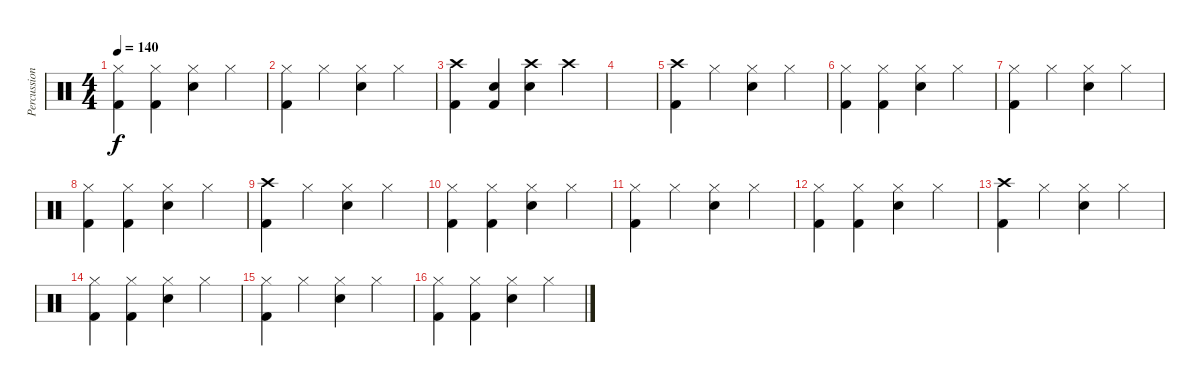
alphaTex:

\track ("Percussion" "Percussion") {instrument percussion}
\staff {score}
\articulation defaults
\ts (4 4)
\tempo 140
\clef neutral
\ks c
("Hi-Hat (closed)" "Kick (hit) 2").4{dy f} ("Hi-Hat (closed)" "Kick (hit) 2").4 ("Hi-Hat (closed)" "Electric Snare (hit)").4 "Hi-Hat (closed)".4 |
("Hi-Hat (closed)" "Kick (hit) 2").4 "Hi-Hat (closed)".4 ("Hi-Hat (closed)" "Electric Snare (hit)").4 "Hi-Hat (closed)".4 |
("Crash high (hit)" "Kick (hit) 2").4 ("Electric Snare (hit)" "Kick (hit) 2").4 ("Crash high (hit)" "Electric Snare (hit)").4 "Crash high (hit)".4 |
|
("Crash high (hit)" "Kick (hit) 2").4 "Hi-Hat (closed)".4 ("Hi-Hat (closed)" "Electric Snare (hit)").4 "Hi-Hat (closed)".4 |
("Hi-Hat (closed)" "Kick (hit) 2").4 ("Hi-Hat (closed)" "Kick (hit) 2").4 ("Hi-Hat (closed)" "Electric Snare (hit)").4 "Hi-Hat (closed)".4 |
("Hi-Hat (closed)" "Kick (hit) 2").4 "Hi-Hat (closed)".4 ("Hi-Hat (closed)" "Electric Snare (hit)").4 "Hi-Hat (closed)".4 |
("Hi-Hat (closed)" "Kick (hit) 2").4 ("Hi-Hat (closed)" "Kick (hit) 2").4 ("Hi-Hat (closed)" "Electric Snare (hit)").4 "Hi-Hat (closed)".4 |
("Crash high (hit)" "Kick (hit) 2").4 "Hi-Hat (closed)".4 ("Hi-Hat (closed)" "Electric Snare (hit)").4 "Hi-Hat (closed)".4 |
("Hi-Hat (closed)" "Kick (hit) 2").4 ("Hi-Hat (closed)" "Kick (hit) 2").4 ("Hi-Hat (closed)" "Electric Snare (hit)").4 "Hi-Hat (closed)".4 |
("Hi-Hat (closed)" "Kick (hit) 2").4 "Hi-Hat (closed)".4 ("Hi-Hat (closed)" "Electric Snare (hit)").4 "Hi-Hat (closed)".4 |
("Hi-Hat (closed)" "Kick (hit) 2").4 ("Hi-Hat (closed)" "Kick (hit) 2").4 ("Hi-Hat (closed)" "Electric Snare (hit)").4 "Hi-Hat (closed)".4 |
("Crash high (hit)" "Kick (hit) 2").4 "Hi-Hat (closed)".4 ("Hi-Hat (closed)" "Electric Snare (hit)").4 "Hi-Hat (closed)".4 |
("Hi-Hat (closed)" "Kick (hit) 2").4 ("Hi-Hat (closed)" "Kick (hit) 2").4 ("Hi-Hat (closed)" "Electric Snare (hit)").4 "Hi-Hat (closed)".4 |
("Hi-Hat (closed)" "Kick (hit) 2").4 "Hi-Hat (closed)".4 ("Hi-Hat (closed)" "Electric Snare (hit)").4 "Hi-Hat (closed)".4 |
("Hi-Hat (closed)" "Kick (hit) 2").4 ("Hi-Hat (closed)" "Kick (hit) 2").4 ("Hi-Hat (closed)" "Electric Snare (hit)").4 "Hi-Hat (closed)".4
